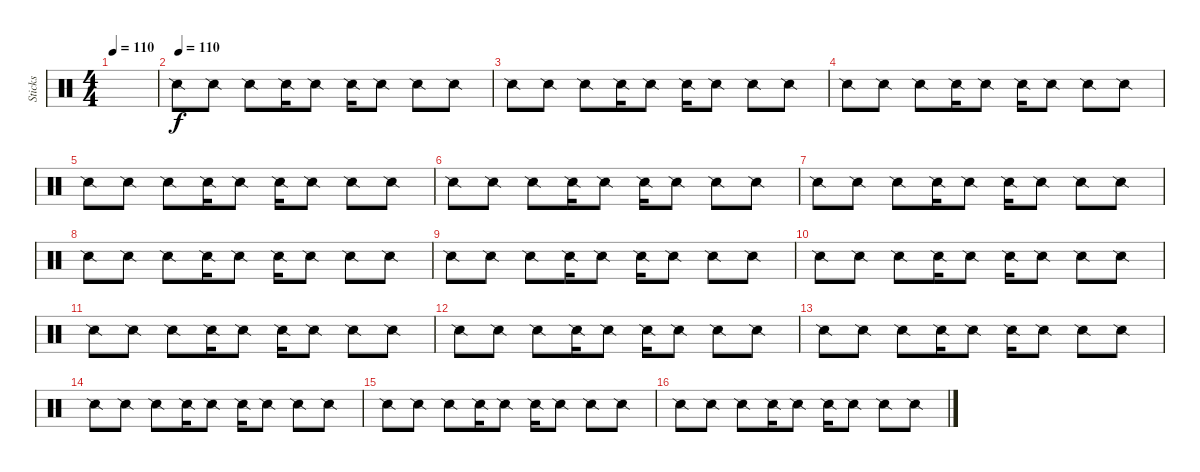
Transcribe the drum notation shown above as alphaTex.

\track ("Sticks" "Sticks") {instrument percussion}
\staff {score}
\articulation defaults
\ts (4 4)
\tempo 110
\clef neutral
\ks c
|
\tempo (110)
"Snare (side stick) 2".8 "Snare (side stick) 2".8 "Snare (side stick) 2".8 "Snare (side stick) 2".16 "Snare (side stick) 2".8 "Snare (side stick) 2".16 "Snare (side stick) 2".8 "Snare (side stick) 2".8 "Snare (side stick) 2".8 |
"Snare (side stick) 2".8 "Snare (side stick) 2".8 "Snare (side stick) 2".8 "Snare (side stick) 2".16 "Snare (side stick) 2".8 "Snare (side stick) 2".16 "Snare (side stick) 2".8 "Snare (side stick) 2".8 "Snare (side stick) 2".8 |
"Snare (side stick) 2".8 "Snare (side stick) 2".8 "Snare (side stick) 2".8 "Snare (side stick) 2".16 "Snare (side stick) 2".8 "Snare (side stick) 2".16 "Snare (side stick) 2".8 "Snare (side stick) 2".8 "Snare (side stick) 2".8 |
"Snare (side stick) 2".8 "Snare (side stick) 2".8 "Snare (side stick) 2".8 "Snare (side stick) 2".16 "Snare (side stick) 2".8 "Snare (side stick) 2".16 "Snare (side stick) 2".8 "Snare (side stick) 2".8 "Snare (side stick) 2".8 |
"Snare (side stick) 2".8 "Snare (side stick) 2".8 "Snare (side stick) 2".8 "Snare (side stick) 2".16 "Snare (side stick) 2".8 "Snare (side stick) 2".16 "Snare (side stick) 2".8 "Snare (side stick) 2".8 "Snare (side stick) 2".8 |
"Snare (side stick) 2".8 "Snare (side stick) 2".8 "Snare (side stick) 2".8 "Snare (side stick) 2".16 "Snare (side stick) 2".8 "Snare (side stick) 2".16 "Snare (side stick) 2".8 "Snare (side stick) 2".8 "Snare (side stick) 2".8 |
"Snare (side stick) 2".8 "Snare (side stick) 2".8 "Snare (side stick) 2".8 "Snare (side stick) 2".16 "Snare (side stick) 2".8 "Snare (side stick) 2".16 "Snare (side stick) 2".8 "Snare (side stick) 2".8 "Snare (side stick) 2".8 |
"Snare (side stick) 2".8 "Snare (side stick) 2".8 "Snare (side stick) 2".8 "Snare (side stick) 2".16 "Snare (side stick) 2".8 "Snare (side stick) 2".16 "Snare (side stick) 2".8 "Snare (side stick) 2".8 "Snare (side stick) 2".8 |
"Snare (side stick) 2".8 "Snare (side stick) 2".8 "Snare (side stick) 2".8 "Snare (side stick) 2".16 "Snare (side stick) 2".8 "Snare (side stick) 2".16 "Snare (side stick) 2".8 "Snare (side stick) 2".8 "Snare (side stick) 2".8 |
"Snare (side stick) 2".8 "Snare (side stick) 2".8 "Snare (side stick) 2".8 "Snare (side stick) 2".16 "Snare (side stick) 2".8 "Snare (side stick) 2".16 "Snare (side stick) 2".8 "Snare (side stick) 2".8 "Snare (side stick) 2".8 |
"Snare (side stick) 2".8 "Snare (side stick) 2".8 "Snare (side stick) 2".8 "Snare (side stick) 2".16 "Snare (side stick) 2".8 "Snare (side stick) 2".16 "Snare (side stick) 2".8 "Snare (side stick) 2".8 "Snare (side stick) 2".8 |
"Snare (side stick) 2".8 "Snare (side stick) 2".8 "Snare (side stick) 2".8 "Snare (side stick) 2".16 "Snare (side stick) 2".8 "Snare (side stick) 2".16 "Snare (side stick) 2".8 "Snare (side stick) 2".8 "Snare (side stick) 2".8 |
"Snare (side stick) 2".8 "Snare (side stick) 2".8 "Snare (side stick) 2".8 "Snare (side stick) 2".16 "Snare (side stick) 2".8 "Snare (side stick) 2".16 "Snare (side stick) 2".8 "Snare (side stick) 2".8 "Snare (side stick) 2".8 |
"Snare (side stick) 2".8 "Snare (side stick) 2".8 "Snare (side stick) 2".8 "Snare (side stick) 2".16 "Snare (side stick) 2".8 "Snare (side stick) 2".16 "Snare (side stick) 2".8 "Snare (side stick) 2".8 "Snare (side stick) 2".8 |
"Snare (side stick) 2".8 "Snare (side stick) 2".8 "Snare (side stick) 2".8 "Snare (side stick) 2".16 "Snare (side stick) 2".8 "Snare (side stick) 2".16 "Snare (side stick) 2".8 "Snare (side stick) 2".8 "Snare (side stick) 2".8
